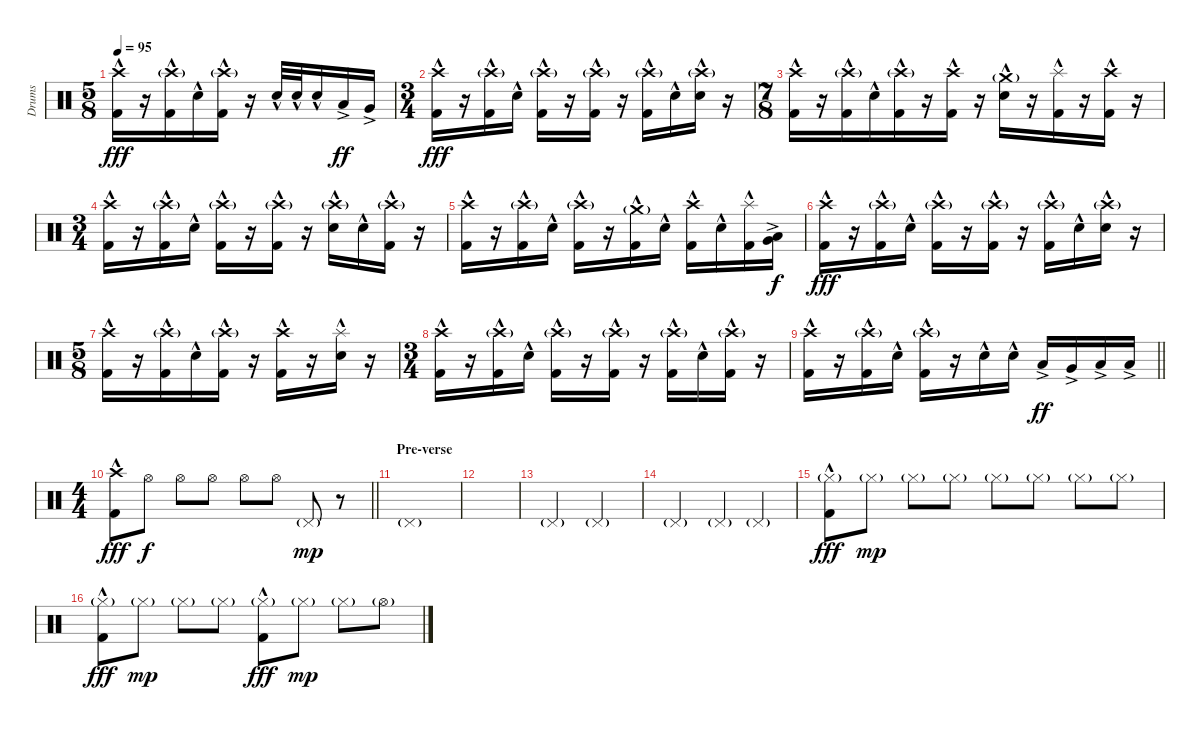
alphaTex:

\track ("Drums" "Drums") {instrument percussion}
\staff {score}
\articulation defaults
\ts (5 8)
\tempo 95
\clef neutral
\ks c
("Crash high (hit)" "Kick (hit) 2"{hac}).16{dy fff} r.16 ("Crash high (hit)"{g} "Kick (hit) 2"{hac}).16 "Electric Snare (hit)"{hac}.16 ("Crash high (hit)"{g} "Kick (hit) 2"{hac}).16 r.16 "Electric Snare (hit)"{hac}.32 "Electric Snare (hit)"{hac}.32 "Electric Snare (hit)"{hac}.16 "Low Tom (hit)"{ac}.16{dy ff} "Very Low Tom (hit)"{ac}.16 |
\ts (3 4)
("Crash high (hit)" "Kick (hit) 2"{hac}).16{dy fff} r.16 ("Crash high (hit)"{g} "Kick (hit) 2"{hac}).16 "Electric Snare (hit)"{hac}.16 ("Crash high (hit)"{g} "Kick (hit) 2"{hac}).16 r.16 ("Crash high (hit)"{g} "Kick (hit) 2"{hac}).16 r.16 ("Crash high (hit)"{g} "Kick (hit) 2"{hac}).16 "Electric Snare (hit)"{hac}.16 ("Crash high (hit)"{g} "Electric Snare (hit)"{hac}).16 r.16 |
\ts (7 8)
("Crash high (hit)" "Kick (hit) 2"{hac}).16 r.16 ("Crash high (hit)"{g} "Kick (hit) 2"{hac}).16 "Electric Snare (hit)"{hac}.16 ("Crash high (hit)"{g} "Kick (hit) 2"{hac}).16 r.16 ("Crash high (hit)" "Kick (hit) 2"{hac}).16 r.16 ("Crash medium (hit)"{g} "Electric Snare (hit)"{hac}).16 r.16 ("Splash (hit)"{hac} "Kick (hit) 2"{hac}).16 r.16 ("Crash high (hit)" "Kick (hit) 2"{hac}).16 r.16 |
\ts (3 4)
("Crash high (hit)" "Kick (hit) 2"{hac}).16 r.16 ("Crash high (hit)"{g} "Kick (hit) 2"{hac}).16 "Electric Snare (hit)"{hac}.16 ("Crash high (hit)"{g} "Kick (hit) 2"{hac}).16 r.16 ("Crash high (hit)"{g} "Kick (hit) 2"{hac}).16 r.16 ("Crash high (hit)"{g} "Electric Snare (hit)"{hac}).16 "Electric Snare (hit)"{hac}.16 ("Crash high (hit)"{g} "Kick (hit) 2"{hac}).16 r.16 |
("Crash high (hit)" "Kick (hit) 2"{hac}).16 r.16 ("Crash high (hit)"{g} "Kick (hit) 2"{hac}).16 "Electric Snare (hit)"{hac}.16 ("Crash high (hit)"{g} "Kick (hit) 2"{hac}).16 r.16 ("Crash medium (hit)"{g} "Kick (hit) 2"{hac}).16 "Electric Snare (hit)"{hac}.16 ("Crash high (hit)" "Kick (hit) 2"{hac}).16 "Electric Snare (hit)"{hac}.16 ("Splash (hit)"{hac} "Kick (hit) 2"{hac}).16 ("Very Low Tom (hit)"{ac} "Low Floor Tom (hit)"{ac}).16{bd 60 dy f} |
("Crash high (hit)" "Kick (hit) 2"{hac}).16{dy fff} r.16 ("Crash high (hit)"{g} "Kick (hit) 2"{hac}).16 "Electric Snare (hit)"{hac}.16 ("Crash high (hit)"{g} "Kick (hit) 2"{hac}).16 r.16 ("Crash high (hit)"{g} "Kick (hit) 2"{hac}).16 r.16 ("Crash high (hit)"{g} "Kick (hit) 2"{hac}).16 "Electric Snare (hit)"{hac}.16 ("Crash high (hit)"{g} "Electric Snare (hit)"{hac}).16 r.16 |
\ts (5 8)
("Crash high (hit)" "Kick (hit) 2"{hac}).16 r.16 ("Crash high (hit)"{g} "Kick (hit) 2"{hac}).16 "Electric Snare (hit)"{hac}.16 ("Crash high (hit)"{g} "Kick (hit) 2"{hac}).16 r.16 ("Crash high (hit)" "Kick (hit) 2"{hac}).16 r.16 ("Splash (hit)"{hac} "Electric Snare (hit)"{hac}).16 r.16 |
\ts (3 4)
("Crash high (hit)" "Kick (hit) 2"{hac}).16 r.16 ("Crash high (hit)"{g} "Kick (hit) 2"{hac}).16 "Electric Snare (hit)"{hac}.16 ("Crash high (hit)"{g} "Kick (hit) 2"{hac}).16 r.16 ("Crash high (hit)"{g} "Kick (hit) 2"{hac}).16 r.16 ("Crash high (hit)"{g} "Kick (hit) 2"{hac}).16 "Electric Snare (hit)"{hac}.16 ("Crash high (hit)"{g} "Kick (hit) 2"{hac}).16 r.16 |
\barLineRight lightlight
("Crash high (hit)" "Kick (hit) 2"{hac}).16 r.16 ("Crash high (hit)"{g} "Kick (hit) 2"{hac}).16 "Electric Snare (hit)"{hac}.16 ("Crash high (hit)"{g} "Kick (hit) 2"{hac}).16 r.16 "Electric Snare (hit)"{hac}.16 "Electric Snare (hit)"{hac}.16 "Low Tom (hit)"{ac}.16{dy ff} "Very Low Tom (hit)"{ac}.16 "Low Floor Tom (hit)"{ac}.16 "Low Floor Tom (hit)"{ac}.16 |
\ts (4 4)
\barLineRight lightlight
("Crash high (hit)" "Kick (hit) 2"{hac}).8{dy fff} "Hi-Hat (open)".8{dy f} "Hi-Hat (open)".8 "Hi-Hat (open)".8 "Hi-Hat (open)".8 "Hi-Hat (open)".8 "Pedal Hi-Hat (hit)"{g}.8{dy mp} r.8 |
\section ("" "Pre-verse")
"Pedal Hi-Hat (hit)"{g}.1 |
|
"Pedal Hi-Hat (hit)"{g}.2 "Pedal Hi-Hat (hit)"{g}.2 |
"Pedal Hi-Hat (hit)"{g}.2 "Pedal Hi-Hat (hit)"{g}.4 "Pedal Hi-Hat (hit)"{g}.4 |
("Hi-Hat (closed)"{g} "Kick (hit) 2"{hac}).8{dy fff} "Hi-Hat (closed)"{g}.8{dy mp} "Hi-Hat (closed)"{g}.8 "Hi-Hat (closed)"{g}.8 "Hi-Hat (closed)"{g}.8 "Hi-Hat (closed)"{g}.8 "Hi-Hat (closed)"{g}.8 "Hi-Hat (closed)"{g}.8 |
("Hi-Hat (closed)"{g} "Kick (hit) 2"{hac}).8{dy fff} "Hi-Hat (closed)"{g}.8{dy mp} "Hi-Hat (closed)"{g}.8 "Hi-Hat (closed)"{g}.8 ("Hi-Hat (closed)"{g} "Kick (hit) 2"{hac}).8{dy fff} "Hi-Hat (closed)"{g}.8{dy mp} "Hi-Hat (closed)"{g}.8 "Hi-Hat (open)"{g}.8
